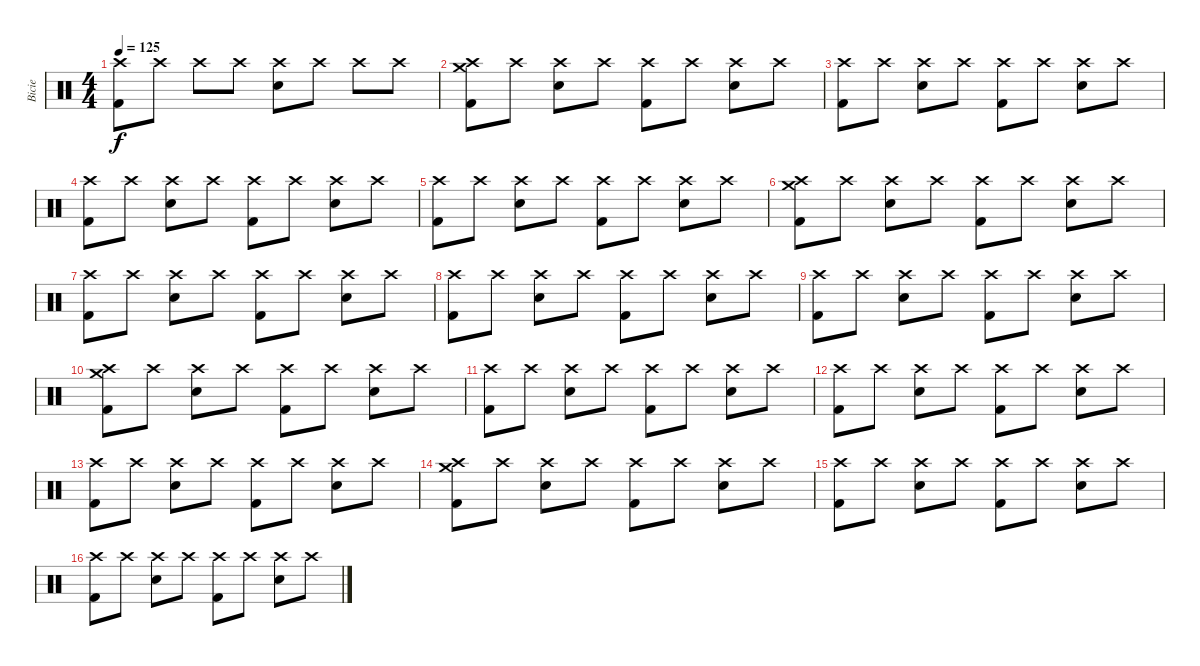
\track ("Bicie" "Bicie") {instrument percussion}
\staff {score}
\articulation defaults
\ts (4 4)
\tempo 125
\clef neutral
\ks c
("Crash high (hit)" "Kick (hit) 2").8{dy f} "Crash high (hit)".8 "Crash high (hit)".8 "Crash high (hit)".8 ("Crash high (hit)" "Snare (hit) 2").8 "Crash high (hit)".8 "Crash high (hit)".8 "Crash high (hit)".8 |
("Crash medium (hit)" "Crash high (hit)" "Kick (hit) 2").8 "Crash high (hit)".8 ("Crash high (hit)" "Snare (hit) 2").8 "Crash high (hit)".8 ("Crash high (hit)" "Kick (hit) 2").8 "Crash high (hit)".8 ("Crash high (hit)" "Snare (hit) 2").8 "Crash high (hit)".8 |
("Crash high (hit)" "Kick (hit) 2").8 "Crash high (hit)".8 ("Crash high (hit)" "Snare (hit) 2").8 "Crash high (hit)".8 ("Crash high (hit)" "Kick (hit) 2").8 "Crash high (hit)".8 ("Crash high (hit)" "Snare (hit) 2").8 "Crash high (hit)".8 |
("Crash high (hit)" "Kick (hit) 2").8 "Crash high (hit)".8 ("Crash high (hit)" "Snare (hit) 2").8 "Crash high (hit)".8 ("Crash high (hit)" "Kick (hit) 2").8 "Crash high (hit)".8 ("Crash high (hit)" "Snare (hit) 2").8 "Crash high (hit)".8 |
("Crash high (hit)" "Kick (hit) 2").8 "Crash high (hit)".8 ("Crash high (hit)" "Snare (hit) 2").8 "Crash high (hit)".8 ("Crash high (hit)" "Kick (hit) 2").8 "Crash high (hit)".8 ("Crash high (hit)" "Snare (hit) 2").8 "Crash high (hit)".8 |
("Crash medium (hit)" "Crash high (hit)" "Kick (hit) 2").8 "Crash high (hit)".8 ("Crash high (hit)" "Snare (hit) 2").8 "Crash high (hit)".8 ("Crash high (hit)" "Kick (hit) 2").8 "Crash high (hit)".8 ("Crash high (hit)" "Snare (hit) 2").8 "Crash high (hit)".8 |
("Crash high (hit)" "Kick (hit) 2").8 "Crash high (hit)".8 ("Crash high (hit)" "Snare (hit) 2").8 "Crash high (hit)".8 ("Crash high (hit)" "Kick (hit) 2").8 "Crash high (hit)".8 ("Crash high (hit)" "Snare (hit) 2").8 "Crash high (hit)".8 |
("Crash high (hit)" "Kick (hit) 2").8 "Crash high (hit)".8 ("Crash high (hit)" "Snare (hit) 2").8 "Crash high (hit)".8 ("Crash high (hit)" "Kick (hit) 2").8 "Crash high (hit)".8 ("Crash high (hit)" "Snare (hit) 2").8 "Crash high (hit)".8 |
("Crash high (hit)" "Kick (hit) 2").8 "Crash high (hit)".8 ("Crash high (hit)" "Snare (hit) 2").8 "Crash high (hit)".8 ("Crash high (hit)" "Kick (hit) 2").8 "Crash high (hit)".8 ("Crash high (hit)" "Snare (hit) 2").8 "Crash high (hit)".8 |
("Crash medium (hit)" "Crash high (hit)" "Kick (hit) 2").8 "Crash high (hit)".8 ("Crash high (hit)" "Snare (hit) 2").8 "Crash high (hit)".8 ("Crash high (hit)" "Kick (hit) 2").8 "Crash high (hit)".8 ("Crash high (hit)" "Snare (hit) 2").8 "Crash high (hit)".8 |
("Crash high (hit)" "Kick (hit) 2").8 "Crash high (hit)".8 ("Crash high (hit)" "Snare (hit) 2").8 "Crash high (hit)".8 ("Crash high (hit)" "Kick (hit) 2").8 "Crash high (hit)".8 ("Crash high (hit)" "Snare (hit) 2").8 "Crash high (hit)".8 |
("Crash high (hit)" "Kick (hit) 2").8 "Crash high (hit)".8 ("Crash high (hit)" "Snare (hit) 2").8 "Crash high (hit)".8 ("Crash high (hit)" "Kick (hit) 2").8 "Crash high (hit)".8 ("Crash high (hit)" "Snare (hit) 2").8 "Crash high (hit)".8 |
("Crash high (hit)" "Kick (hit) 2").8 "Crash high (hit)".8 ("Crash high (hit)" "Snare (hit) 2").8 "Crash high (hit)".8 ("Crash high (hit)" "Kick (hit) 2").8 "Crash high (hit)".8 ("Crash high (hit)" "Snare (hit) 2").8 "Crash high (hit)".8 |
("Crash medium (hit)" "Crash high (hit)" "Kick (hit) 2").8 "Crash high (hit)".8 ("Crash high (hit)" "Snare (hit) 2").8 "Crash high (hit)".8 ("Crash high (hit)" "Kick (hit) 2").8 "Crash high (hit)".8 ("Crash high (hit)" "Snare (hit) 2").8 "Crash high (hit)".8 |
("Crash high (hit)" "Kick (hit) 2").8 "Crash high (hit)".8 ("Crash high (hit)" "Snare (hit) 2").8 "Crash high (hit)".8 ("Crash high (hit)" "Kick (hit) 2").8 "Crash high (hit)".8 ("Crash high (hit)" "Snare (hit) 2").8 "Crash high (hit)".8 |
("Crash high (hit)" "Kick (hit) 2").8 "Crash high (hit)".8 ("Crash high (hit)" "Snare (hit) 2").8 "Crash high (hit)".8 ("Crash high (hit)" "Kick (hit) 2").8 "Crash high (hit)".8 ("Crash high (hit)" "Snare (hit) 2").8 "Crash high (hit)".8
